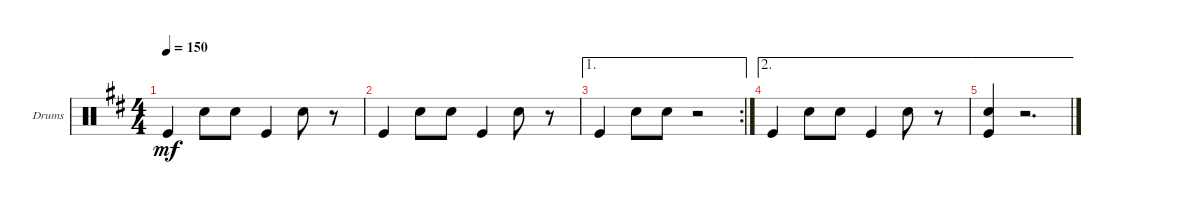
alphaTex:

\defaultSystemsLayout 4
\bracketExtendMode groupsimilarinstruments
\firstSystemTrackNameOrientation horizontal
\otherSystemsTrackNameOrientation horizontal
\track ("Drums" "Drums") {instrument percussion}
\staff {score}
\articulation defaults
\ts (4 4)
\tempo 150
\clef neutral
\scale
0.333333
\ks d "Kick (hit)".4{dy mf} "Snare (hit) 2".8 "Snare (hit) 2".8 "Kick (hit)".4 "Snare (hit) 2".8
r.8 |
"Kick (hit)".4 "Snare (hit) 2".8 "Snare (hit) 2".8 "Kick (hit)".4 "Snare (hit) 2".8 r.8 |
\ae 1
\rc 2 "Kick (hit)".4 "Snare (hit) 2".8 "Snare (hit) 2".8
r.2 |
\ae 2 "Kick (hit)".4 "Snare (hit) 2".8 "Snare (hit) 2".8 "Kick (hit)".4 "Snare (hit) 2".8
r.8 |
\ae 2
("Kick (hit)" "Snare (hit) 2").4 r.2{d}
